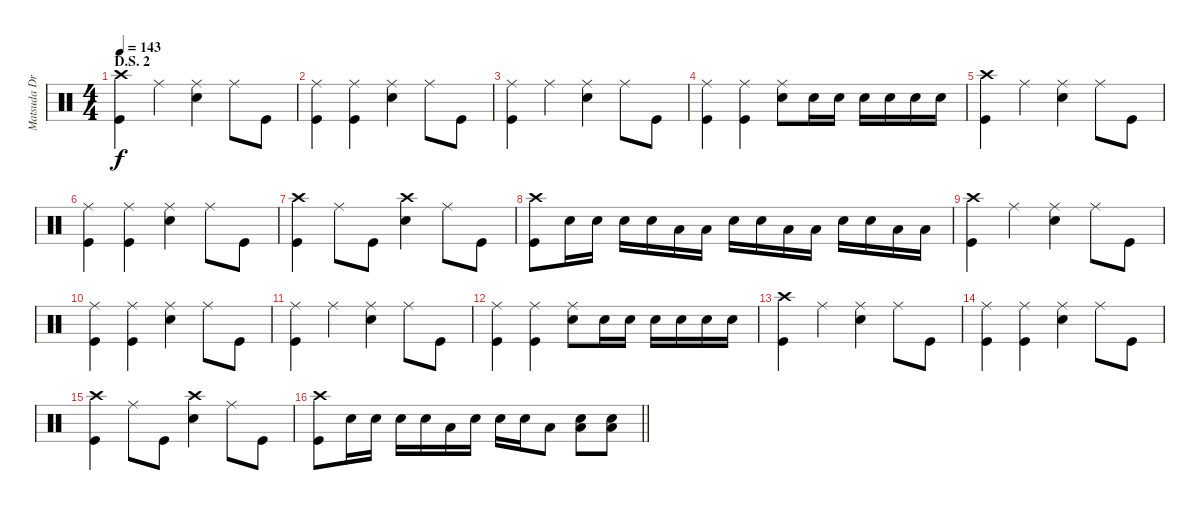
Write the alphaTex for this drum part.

\track ("Matsuda Drums" "Matsuda Dr") {instrument percussion}
\staff {score}
\articulation defaults
\ts (4 4)
\section ("" "D.S. 2")
\tempo 143
\clef neutral
\ks c
("Crash high (hit)" "Kick (hit)").4{dy f} "Ride (middle)".4 ("Ride (middle)" "Snare (hit) 2").4 "Ride (middle)".8 "Kick (hit)".8 |
("Ride (middle)" "Kick (hit)").4 ("Ride (middle)" "Kick (hit)").4 ("Ride (middle)" "Snare (hit) 2").4 "Ride (middle)".8 "Kick (hit)".8 |
("Ride (middle)" "Kick (hit)").4 "Ride (middle)".4 ("Ride (middle)" "Snare (hit) 2").4 "Ride (middle)".8 "Kick (hit)".8 |
("Ride (middle)" "Kick (hit)").4 ("Ride (middle)" "Kick (hit)").4 ("Ride (middle)" "Snare (hit) 2").8 "Snare (hit) 2".16 "Snare (hit) 2".16 "Snare (hit) 2".16 "Snare (hit) 2".16 "Snare (hit) 2".16 "Snare (hit) 2".16 |
("Crash high (hit)" "Kick (hit)").4 "Ride (middle)".4 ("Ride (middle)" "Snare (hit) 2").4 "Ride (middle)".8 "Kick (hit)".8 |
("Ride (middle)" "Kick (hit)").4 ("Ride (middle)" "Kick (hit)").4 ("Ride (middle)" "Snare (hit) 2").4 "Ride (middle)".8 "Kick (hit)".8 |
("Crash high (hit)" "Kick (hit)").4 "Ride (middle)".8 "Kick (hit)".8 ("Crash high (hit)" "Snare (hit) 2").4 "Ride (middle)".8 "Kick (hit)".8 |
("Crash high (hit)" "Kick (hit)").8 "Snare (hit) 2".16 "Snare (hit) 2".16 "Snare (hit) 2".16 "Snare (hit) 2".16 "Low Tom (hit)".16 "Low Tom (hit)".16 "Snare (hit) 2".16 "Snare (hit) 2".16 "Low Tom (hit)".16 "Low Tom (hit)".16 "Snare (hit) 2".16 "Snare (hit) 2".16 "Low Tom (hit)".16 "Low Tom (hit)".16 |
("Crash high (hit)" "Kick (hit)").4 "Ride (middle)".4 ("Ride (middle)" "Snare (hit) 2").4 "Ride (middle)".8 "Kick (hit)".8 |
("Ride (middle)" "Kick (hit)").4 ("Ride (middle)" "Kick (hit)").4 ("Ride (middle)" "Snare (hit) 2").4 "Ride (middle)".8 "Kick (hit)".8 |
("Ride (middle)" "Kick (hit)").4 "Ride (middle)".4 ("Ride (middle)" "Snare (hit) 2").4 "Ride (middle)".8 "Kick (hit)".8 |
("Ride (middle)" "Kick (hit)").4 ("Ride (middle)" "Kick (hit)").4 ("Ride (middle)" "Snare (hit) 2").8 "Snare (hit) 2".16 "Snare (hit) 2".16 "Snare (hit) 2".16 "Snare (hit) 2".16 "Snare (hit) 2".16 "Snare (hit) 2".16 |
("Crash high (hit)" "Kick (hit)").4 "Ride (middle)".4 ("Ride (middle)" "Snare (hit) 2").4 "Ride (middle)".8 "Kick (hit)".8 |
("Ride (middle)" "Kick (hit)").4 ("Ride (middle)" "Kick (hit)").4 ("Ride (middle)" "Snare (hit) 2").4 "Ride (middle)".8 "Kick (hit)".8 |
("Crash high (hit)" "Kick (hit)").4 "Ride (middle)".8 "Kick (hit)".8 ("Crash high (hit)" "Snare (hit) 2").4 "Ride (middle)".8 "Kick (hit)".8 |
\barLineRight lightlight
("Crash high (hit)" "Kick (hit)").8 "Snare (hit) 2".16 "Snare (hit) 2".16 "Snare (hit) 2".16 "Snare (hit) 2".16 "Low Tom (hit)".16 "Snare (hit) 2".16 "Snare (hit) 2".16 "Snare (hit) 2".16 "Low Tom (hit)".8 ("Snare (hit) 2" "Low Tom (hit)").8 ("Snare (hit) 2" "Low Tom (hit)").8
